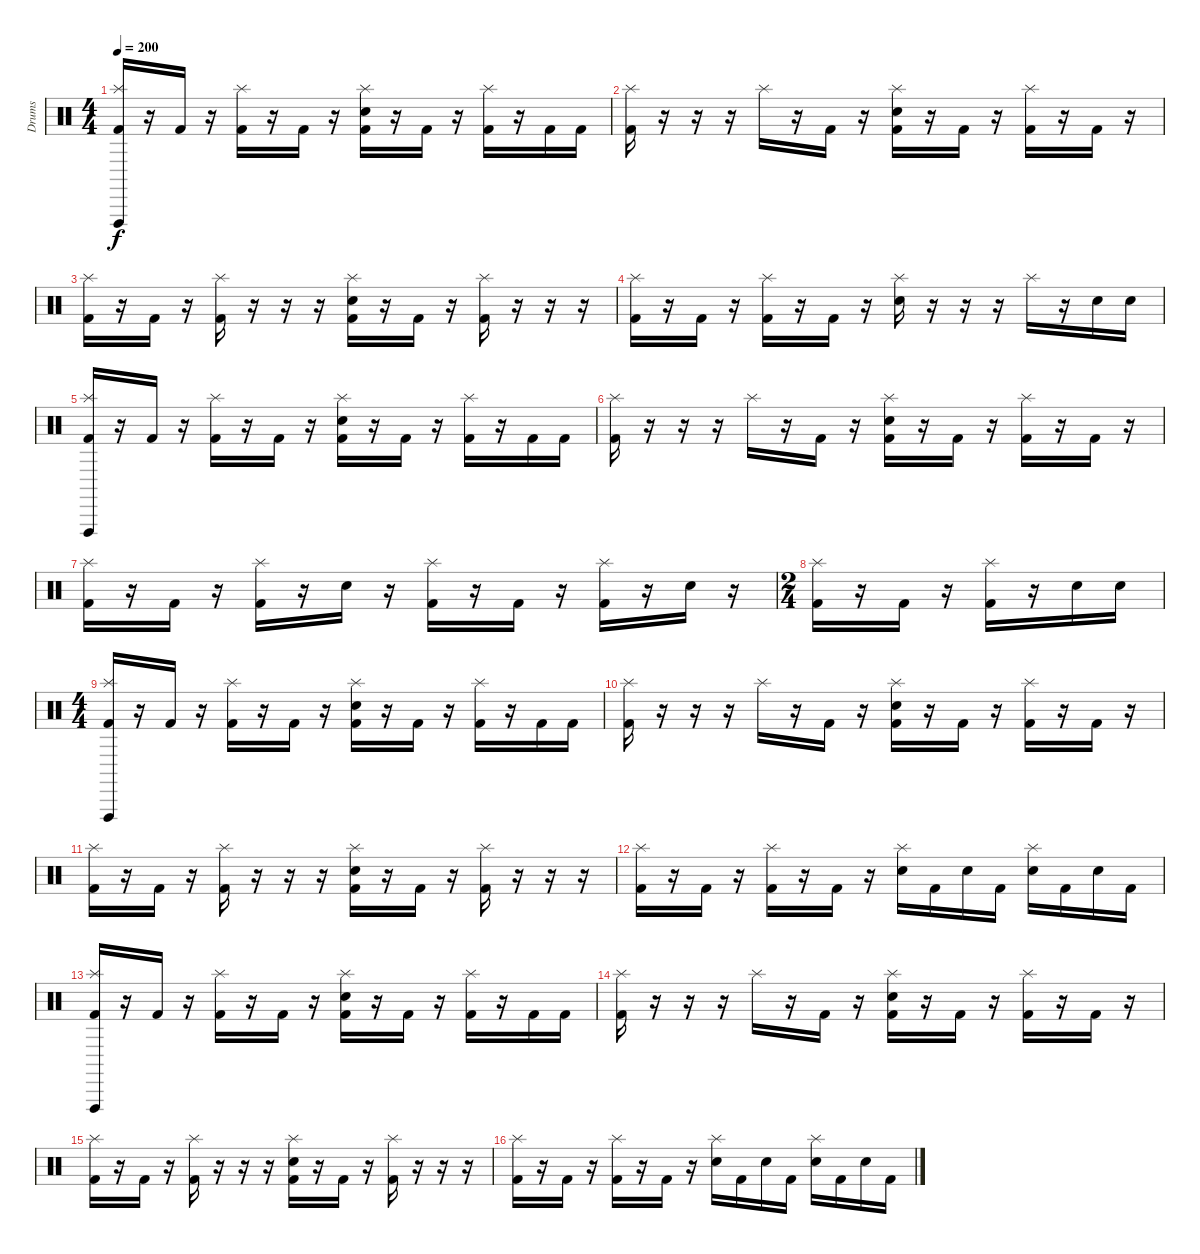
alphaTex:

\track ("Drums" "Drums") {instrument percussion}
\staff {score}
\articulation defaults
\ts (4 4)
\tempo 200
\clef neutral
\ks c
("Vibraslap (hit)" "Splash (hit)" "Kick (hit) 2").16{dy f} r.16 "Kick (hit) 2".16 r.16 ("Splash (hit)" "Kick (hit) 2").16 r.16 "Kick (hit) 2".16 r.16 ("Splash (hit)" "Electric Snare (hit)" "Kick (hit) 2").16 r.16 "Kick (hit) 2".16 r.16 ("Splash (hit)" "Kick (hit) 2").16 r.16 "Kick (hit) 2".16 "Kick (hit) 2".16 |
("Splash (hit)" "Kick (hit) 2").16 r.16 r.16 r.16 "Splash (hit)".16 r.16 "Kick (hit) 2".16 r.16 ("Splash (hit)" "Electric Snare (hit)" "Kick (hit) 2").16 r.16 "Kick (hit) 2".16 r.16 ("Splash (hit)" "Kick (hit) 2").16 r.16 "Kick (hit) 2".16 r.16 |
("Splash (hit)" "Kick (hit) 2").16 r.16 "Kick (hit) 2".16 r.16 ("Splash (hit)" "Kick (hit) 2").16 r.16 r.16 r.16 ("Splash (hit)" "Electric Snare (hit)" "Kick (hit) 2").16 r.16 "Kick (hit) 2".16 r.16 ("Splash (hit)" "Kick (hit) 2").16 r.16 r.16 r.16 |
("Splash (hit)" "Kick (hit) 2").16 r.16 "Kick (hit) 2".16 r.16 ("Splash (hit)" "Kick (hit) 2").16 r.16 "Kick (hit) 2".16 r.16 ("Splash (hit)" "Electric Snare (hit)").16 r.16 r.16 r.16 "Splash (hit)".16 r.16 "Electric Snare (hit)".16 "Electric Snare (hit)".16 |
("Vibraslap (hit)" "Splash (hit)" "Kick (hit) 2").16 r.16 "Kick (hit) 2".16 r.16 ("Splash (hit)" "Kick (hit) 2").16 r.16 "Kick (hit) 2".16 r.16 ("Splash (hit)" "Electric Snare (hit)" "Kick (hit) 2").16 r.16 "Kick (hit) 2".16 r.16 ("Splash (hit)" "Kick (hit) 2").16 r.16 "Kick (hit) 2".16 "Kick (hit) 2".16 |
("Splash (hit)" "Kick (hit) 2").16 r.16 r.16 r.16 "Splash (hit)".16 r.16 "Kick (hit) 2".16 r.16 ("Splash (hit)" "Electric Snare (hit)" "Kick (hit) 2").16 r.16 "Kick (hit) 2".16 r.16 ("Splash (hit)" "Kick (hit) 2").16 r.16 "Kick (hit) 2".16 r.16 |
("Splash (hit)" "Kick (hit) 2").16 r.16 "Kick (hit) 2".16 r.16 ("Splash (hit)" "Kick (hit) 2").16 r.16 "Electric Snare (hit)".16 r.16 ("Splash (hit)" "Kick (hit) 2").16 r.16 "Kick (hit) 2".16 r.16 ("Splash (hit)" "Kick (hit) 2").16 r.16 "Electric Snare (hit)".16 r.16 |
\ts (2 4)
("Splash (hit)" "Kick (hit) 2").16 r.16 "Kick (hit) 2".16 r.16 ("Splash (hit)" "Kick (hit) 2").16 r.16 "Electric Snare (hit)".16 "Electric Snare (hit)".16 |
\ts (4 4)
("Vibraslap (hit)" "Splash (hit)" "Kick (hit) 2").16 r.16 "Kick (hit) 2".16 r.16 ("Splash (hit)" "Kick (hit) 2").16 r.16 "Kick (hit) 2".16 r.16 ("Splash (hit)" "Electric Snare (hit)" "Kick (hit) 2").16 r.16 "Kick (hit) 2".16 r.16 ("Splash (hit)" "Kick (hit) 2").16 r.16 "Kick (hit) 2".16 "Kick (hit) 2".16 |
("Splash (hit)" "Kick (hit) 2").16 r.16 r.16 r.16 "Splash (hit)".16 r.16 "Kick (hit) 2".16 r.16 ("Splash (hit)" "Electric Snare (hit)" "Kick (hit) 2").16 r.16 "Kick (hit) 2".16 r.16 ("Splash (hit)" "Kick (hit) 2").16 r.16 "Kick (hit) 2".16 r.16 |
("Splash (hit)" "Kick (hit) 2").16 r.16 "Kick (hit) 2".16 r.16 ("Splash (hit)" "Kick (hit) 2").16 r.16 r.16 r.16 ("Splash (hit)" "Electric Snare (hit)" "Kick (hit) 2").16 r.16 "Kick (hit) 2".16 r.16 ("Splash (hit)" "Kick (hit) 2").16 r.16 r.16 r.16 |
("Splash (hit)" "Kick (hit) 2").16 r.16 "Kick (hit) 2".16 r.16 ("Splash (hit)" "Kick (hit) 2").16 r.16 "Kick (hit) 2".16 r.16 ("Splash (hit)" "Electric Snare (hit)").16 "Kick (hit) 2".16 "Electric Snare (hit)".16 "Kick (hit) 2".16 ("Splash (hit)" "Electric Snare (hit)").16 "Kick (hit) 2".16 "Electric Snare (hit)".16 "Kick (hit) 2".16 |
("Vibraslap (hit)" "Splash (hit)" "Kick (hit) 2").16 r.16 "Kick (hit) 2".16 r.16 ("Splash (hit)" "Kick (hit) 2").16 r.16 "Kick (hit) 2".16 r.16 ("Splash (hit)" "Electric Snare (hit)" "Kick (hit) 2").16 r.16 "Kick (hit) 2".16 r.16 ("Splash (hit)" "Kick (hit) 2").16 r.16 "Kick (hit) 2".16 "Kick (hit) 2".16 |
("Splash (hit)" "Kick (hit) 2").16 r.16 r.16 r.16 "Splash (hit)".16 r.16 "Kick (hit) 2".16 r.16 ("Splash (hit)" "Electric Snare (hit)" "Kick (hit) 2").16 r.16 "Kick (hit) 2".16 r.16 ("Splash (hit)" "Kick (hit) 2").16 r.16 "Kick (hit) 2".16 r.16 |
("Splash (hit)" "Kick (hit) 2").16 r.16 "Kick (hit) 2".16 r.16 ("Splash (hit)" "Kick (hit) 2").16 r.16 r.16 r.16 ("Splash (hit)" "Electric Snare (hit)" "Kick (hit) 2").16 r.16 "Kick (hit) 2".16 r.16 ("Splash (hit)" "Kick (hit) 2").16 r.16 r.16 r.16 |
("Splash (hit)" "Kick (hit) 2").16 r.16 "Kick (hit) 2".16 r.16 ("Splash (hit)" "Kick (hit) 2").16 r.16 "Kick (hit) 2".16 r.16 ("Splash (hit)" "Electric Snare (hit)").16 "Kick (hit) 2".16 "Electric Snare (hit)".16 "Kick (hit) 2".16 ("Splash (hit)" "Electric Snare (hit)").16 "Kick (hit) 2".16 "Electric Snare (hit)".16 "Kick (hit) 2".16
